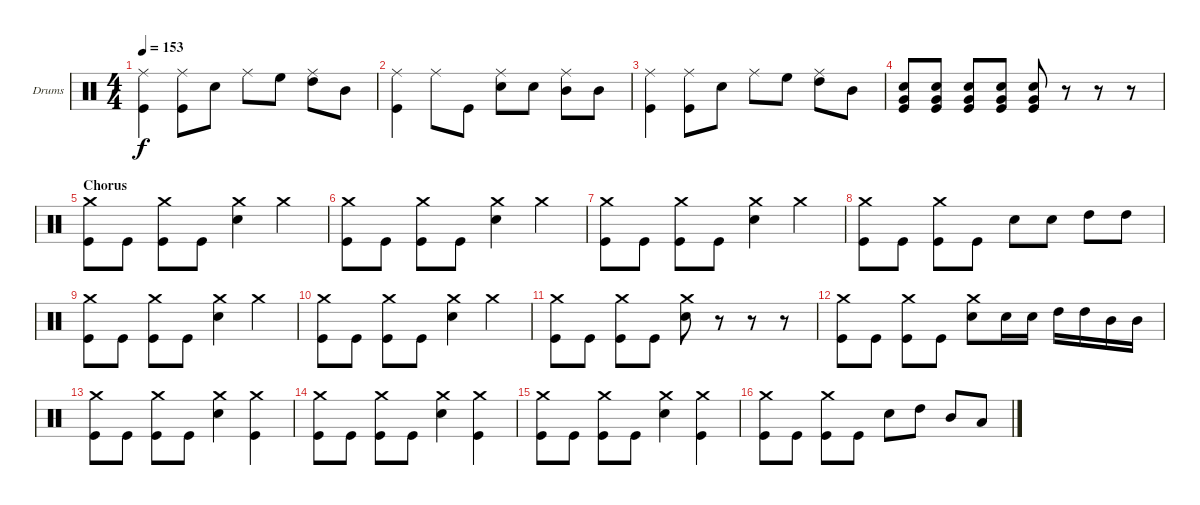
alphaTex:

\bracketExtendMode groupsimilarinstruments
\firstSystemTrackNameOrientation horizontal
\otherSystemsTrackNameOrientation horizontal
\track ("Drumkit" "Drums") {instrument percussion}
\staff {score}
\articulation defaults
\ts (4 4)
\tempo 153
\clef neutral
\ks c
("Ride (middle)" "Kick (hit)").4{dy f} ("Ride (middle)" "Kick (hit)").8 "Snare (hit) 2".8 "Ride (middle)".8 "High Floor Tom (hit)".8 ("Ride (middle)" "High Tom (hit)").8 "Mid Tom (hit)".8 |
("Ride (middle)" "Kick (hit)").4 "Ride (middle)".8 "Kick (hit)".8 ("Ride (middle)" "Snare (hit) 2").8 "Snare (hit) 2".8 ("Ride (middle)" "Mid Tom (hit)").8 "Mid Tom (hit)".8 |
("Ride (middle)" "Kick (hit)").4 ("Ride (middle)" "Kick (hit)").8 "Snare (hit) 2".8 "Ride (middle)".8 "High Floor Tom (hit)".8 ("Ride (middle)" "High Tom (hit)").8 "Mid Tom (hit)".8 |
("Very Low Tom (hit)" "Kick (hit)" "Snare (hit) 2").8 ("Very Low Tom (hit)" "Kick (hit)" "Snare (hit) 2").8 ("Very Low Tom (hit)" "Kick (hit)" "Snare (hit) 2").8 ("Very Low Tom (hit)" "Kick (hit)" "Snare (hit) 2").8 ("Very Low Tom (hit)" "Kick (hit)" "Snare (hit) 2").8 r.8 r.8 r.8 |
\section ("" "Chorus")
("Crash medium (hit)" "Kick (hit)").8 "Kick (hit)".8 ("Crash medium (hit)" "Kick (hit)").8 "Kick (hit)".8 ("Crash medium (hit)" "Snare (hit) 2").4 "Crash medium (hit)".4 |
("Crash medium (hit)" "Kick (hit)").8 "Kick (hit)".8 ("Crash medium (hit)" "Kick (hit)").8 "Kick (hit)".8 ("Crash medium (hit)" "Snare (hit) 2").4 "Crash medium (hit)".4 |
("Crash medium (hit)" "Kick (hit)").8 "Kick (hit)".8 ("Crash medium (hit)" "Kick (hit)").8 "Kick (hit)".8 ("Crash medium (hit)" "Snare (hit) 2").4 "Crash medium (hit)".4 |
("Crash medium (hit)" "Kick (hit)").8 "Kick (hit)".8 ("Crash medium (hit)" "Kick (hit)").8 "Kick (hit)".8 "Snare (hit) 2".8 "Snare (hit) 2".8 "High Tom (hit)".8 "High Tom (hit)".8 |
("Crash medium (hit)" "Kick (hit)").8 "Kick (hit)".8 ("Crash medium (hit)" "Kick (hit)").8 "Kick (hit)".8 ("Crash medium (hit)" "Snare (hit) 2").4 "Crash medium (hit)".4 |
("Crash medium (hit)" "Kick (hit)").8 "Kick (hit)".8 ("Crash medium (hit)" "Kick (hit)").8 "Kick (hit)".8 ("Crash medium (hit)" "Snare (hit) 2").4 "Crash medium (hit)".4 |
("Crash medium (hit)" "Kick (hit)").8 "Kick (hit)".8 ("Crash medium (hit)" "Kick (hit)").8 "Kick (hit)".8 ("Crash medium (hit)" "Snare (hit) 2").8 r.8 r.8 r.8 |
("Crash medium (hit)" "Kick (hit)").8 "Kick (hit)".8 ("Crash medium (hit)" "Kick (hit)").8 "Kick (hit)".8 ("Crash medium (hit)" "Snare (hit) 2").8 "Snare (hit) 2".16 "Snare (hit) 2".16 "High Tom (hit)".16 "High Tom (hit)".16 "Mid Tom (hit)".16 "Mid Tom (hit)".16 |
("Crash medium (hit)" "Kick (hit)").8 "Kick (hit)".8 ("Crash medium (hit)" "Kick (hit)").8 "Kick (hit)".8 ("Crash medium (hit)" "Snare (hit) 2").4 ("Crash medium (hit)" "Kick (hit)").4 |
("Crash medium (hit)" "Kick (hit)").8 "Kick (hit)".8 ("Crash medium (hit)" "Kick (hit)").8 "Kick (hit)".8 ("Crash medium (hit)" "Snare (hit) 2").4 ("Crash medium (hit)" "Kick (hit)").4 |
("Crash medium (hit)" "Kick (hit)").8 "Kick (hit)".8 ("Crash medium (hit)" "Kick (hit)").8 "Kick (hit)".8 ("Crash medium (hit)" "Snare (hit) 2").4 ("Crash medium (hit)" "Kick (hit)").4 |
("Crash medium (hit)" "Kick (hit)").8 "Kick (hit)".8 ("Crash medium (hit)" "Kick (hit)").8 "Kick (hit)".8 "Snare (hit) 2".8 "High Tom (hit)".8 "Mid Tom (hit)".8 "Low Tom (hit)".8
